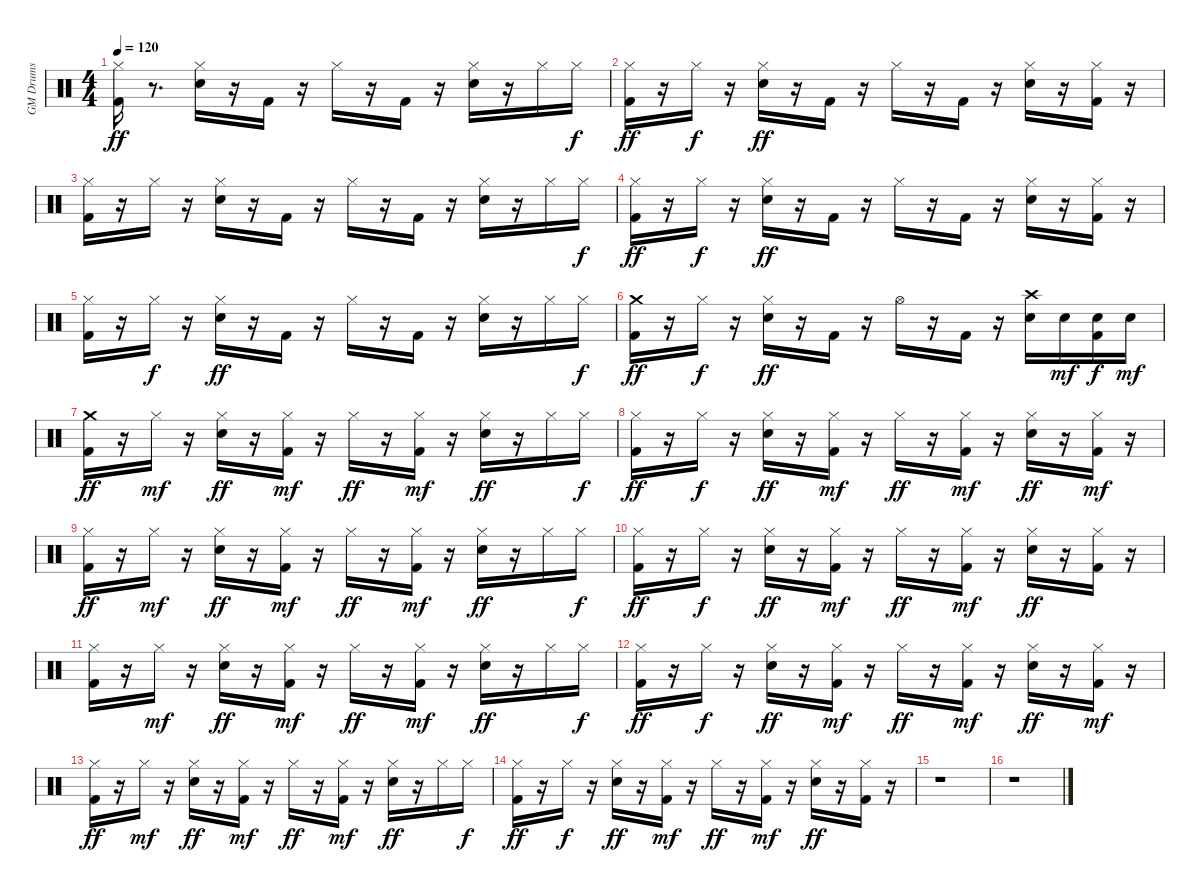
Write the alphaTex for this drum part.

\track ("GM Drums" "GM Drums") {instrument percussion}
\staff {score}
\articulation defaults
\ts (4 4)
\tempo 120
\clef neutral
\ks c
("Kick (hit) 2" "Hi-Hat (closed)").16{dy ff} r.8{d} ("Snare (hit) 2" "Hi-Hat (closed)").16 r.16 "Kick (hit) 2".16 r.16 "Hi-Hat (closed)".16 r.16 "Kick (hit) 2".16 r.16 ("Snare (hit) 2" "Hi-Hat (closed)").16 r.16 "Hi-Hat (closed)".16 "Hi-Hat (closed)".16{dy f} |
("Kick (hit) 2" "Hi-Hat (closed)").16{dy ff} r.16 "Hi-Hat (closed)".16{dy f} r.16 ("Snare (hit) 2" "Hi-Hat (closed)").16{dy ff} r.16 "Kick (hit) 2".16 r.16 "Hi-Hat (closed)".16 r.16 "Kick (hit) 2".16 r.16 ("Snare (hit) 2" "Hi-Hat (closed)").16 r.16 ("Kick (hit) 2" "Hi-Hat (closed)").16 r.16 |
("Kick (hit) 2" "Hi-Hat (closed)").16 r.16 "Hi-Hat (closed)".16 r.16 ("Snare (hit) 2" "Hi-Hat (closed)").16 r.16 "Kick (hit) 2".16 r.16 "Hi-Hat (closed)".16 r.16 "Kick (hit) 2".16 r.16 ("Snare (hit) 2" "Hi-Hat (closed)").16 r.16 "Hi-Hat (closed)".16 "Hi-Hat (closed)".16{dy f} |
("Kick (hit) 2" "Hi-Hat (closed)").16{dy ff} r.16 "Hi-Hat (closed)".16{dy f} r.16 ("Snare (hit) 2" "Hi-Hat (closed)").16{dy ff} r.16 "Kick (hit) 2".16 r.16 "Hi-Hat (closed)".16 r.16 "Kick (hit) 2".16 r.16 ("Snare (hit) 2" "Hi-Hat (closed)").16 r.16 ("Kick (hit) 2" "Hi-Hat (closed)").16 r.16 |
("Kick (hit) 2" "Hi-Hat (closed)").16 r.16 "Hi-Hat (closed)".16{dy f} r.16 ("Snare (hit) 2" "Hi-Hat (closed)").16{dy ff} r.16 "Kick (hit) 2".16 r.16 "Hi-Hat (closed)".16 r.16 "Kick (hit) 2".16 r.16 ("Snare (hit) 2" "Hi-Hat (closed)").16 r.16 "Hi-Hat (closed)".16 "Hi-Hat (closed)".16{dy f} |
("Kick (hit) 2" "Crash medium (hit)").16{dy ff} r.16 "Hi-Hat (closed)".16{dy f} r.16 ("Snare (hit) 2" "Hi-Hat (closed)").16{dy ff} r.16 "Kick (hit) 2".16 r.16 "Hi-Hat (open)".16 r.16 "Kick (hit) 2".16 r.16 ("Electric Snare (hit)" "Crash high (hit)").16 "Snare (hit) 2".16{dy mf} ("Kick (hit) 2" "Snare (hit) 2").16{dy f} "Snare (hit) 2".16{dy mf} |
("Kick (hit) 2" "Crash medium (hit)").16{dy ff} r.16 "Hi-Hat (closed)".16{dy mf} r.16 ("Snare (hit) 2" "Hi-Hat (closed)").16{dy ff} r.16 ("Kick (hit) 2" "Hi-Hat (closed)").16{dy mf} r.16 "Hi-Hat (closed)".16{dy ff} r.16 ("Kick (hit) 2" "Hi-Hat (closed)").16{dy mf} r.16 ("Snare (hit) 2" "Hi-Hat (closed)").16{dy ff} r.16 "Hi-Hat (closed)".16 "Hi-Hat (closed)".16{dy f} |
("Kick (hit) 2" "Hi-Hat (closed)").16{dy ff} r.16 "Hi-Hat (closed)".16{dy f} r.16 ("Snare (hit) 2" "Hi-Hat (closed)").16{dy ff} r.16 ("Kick (hit) 2" "Hi-Hat (closed)").16{dy mf} r.16 "Hi-Hat (closed)".16{dy ff} r.16 ("Kick (hit) 2" "Hi-Hat (closed)").16{dy mf} r.16 ("Snare (hit) 2" "Hi-Hat (closed)").16{dy ff} r.16 ("Kick (hit) 2" "Hi-Hat (closed)").16{dy mf} r.16 |
("Kick (hit) 2" "Hi-Hat (closed)").16{dy ff} r.16 "Hi-Hat (closed)".16{dy mf} r.16 ("Snare (hit) 2" "Hi-Hat (closed)").16{dy ff} r.16 ("Kick (hit) 2" "Hi-Hat (closed)").16{dy mf} r.16 "Hi-Hat (closed)".16{dy ff} r.16 ("Kick (hit) 2" "Hi-Hat (closed)").16{dy mf} r.16 ("Snare (hit) 2" "Hi-Hat (closed)").16{dy ff} r.16 "Hi-Hat (closed)".16 "Hi-Hat (closed)".16{dy f} |
("Kick (hit) 2" "Hi-Hat (closed)").16{dy ff} r.16 "Hi-Hat (closed)".16{dy f} r.16 ("Snare (hit) 2" "Hi-Hat (closed)").16{dy ff} r.16 ("Kick (hit) 2" "Hi-Hat (closed)").16{dy mf} r.16 "Hi-Hat (closed)".16{dy ff} r.16 ("Kick (hit) 2" "Hi-Hat (closed)").16{dy mf} r.16 ("Snare (hit) 2" "Hi-Hat (closed)").16{dy ff} r.16 ("Kick (hit) 2" "Hi-Hat (closed)").16 r.16 |
("Kick (hit) 2" "Hi-Hat (closed)").16 r.16 "Hi-Hat (closed)".16{dy mf} r.16 ("Snare (hit) 2" "Hi-Hat (closed)").16{dy ff} r.16 ("Kick (hit) 2" "Hi-Hat (closed)").16{dy mf} r.16 "Hi-Hat (closed)".16{dy ff} r.16 ("Kick (hit) 2" "Hi-Hat (closed)").16{dy mf} r.16 ("Snare (hit) 2" "Hi-Hat (closed)").16{dy ff} r.16 "Hi-Hat (closed)".16 "Hi-Hat (closed)".16{dy f} |
("Kick (hit) 2" "Hi-Hat (closed)").16{dy ff} r.16 "Hi-Hat (closed)".16{dy f} r.16 ("Snare (hit) 2" "Hi-Hat (closed)").16{dy ff} r.16 ("Kick (hit) 2" "Hi-Hat (closed)").16{dy mf} r.16 "Hi-Hat (closed)".16{dy ff} r.16 ("Kick (hit) 2" "Hi-Hat (closed)").16{dy mf} r.16 ("Snare (hit) 2" "Hi-Hat (closed)").16{dy ff} r.16 ("Kick (hit) 2" "Hi-Hat (closed)").16{dy mf} r.16 |
("Kick (hit) 2" "Hi-Hat (closed)").16{dy ff} r.16 "Hi-Hat (closed)".16{dy mf} r.16 ("Snare (hit) 2" "Hi-Hat (closed)").16{dy ff} r.16 ("Kick (hit) 2" "Hi-Hat (closed)").16{dy mf} r.16 "Hi-Hat (closed)".16{dy ff} r.16 ("Kick (hit) 2" "Hi-Hat (closed)").16{dy mf} r.16 ("Snare (hit) 2" "Hi-Hat (closed)").16{dy ff} r.16 "Hi-Hat (closed)".16 "Hi-Hat (closed)".16{dy f} |
("Kick (hit) 2" "Hi-Hat (closed)").16{dy ff} r.16 "Hi-Hat (closed)".16{dy f} r.16 ("Snare (hit) 2" "Hi-Hat (closed)").16{dy ff} r.16 ("Kick (hit) 2" "Hi-Hat (closed)").16{dy mf} r.16 "Hi-Hat (closed)".16{dy ff} r.16 ("Kick (hit) 2" "Hi-Hat (closed)").16{dy mf} r.16 ("Snare (hit) 2" "Hi-Hat (closed)").16{dy ff} r.16 ("Kick (hit) 2" "Hi-Hat (closed)").16 r.16 |
r.1 |
r.1
